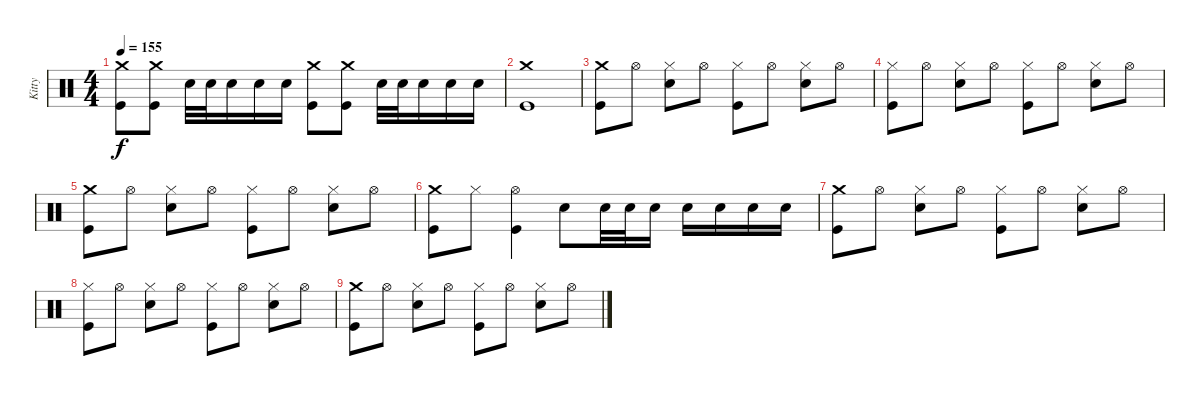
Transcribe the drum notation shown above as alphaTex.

\track ("Kitty" "Kitty") {instrument percussion}
\staff {score}
\articulation defaults
\ts (4 4)
\tempo 155
\clef neutral
\ks c
("Crash medium (hit)" "Kick (hit)").8{dy f} ("Crash medium (hit)" "Kick (hit)").8 "Electric Snare (hit)".32 "Electric Snare (hit)".32 "Electric Snare (hit)".16 "Electric Snare (hit)".16 "Electric Snare (hit)".16 ("Crash medium (hit)" "Kick (hit)").8 ("Crash medium (hit)" "Kick (hit)").8 "Electric Snare (hit)".32 "Electric Snare (hit)".32 "Electric Snare (hit)".16 "Electric Snare (hit)".16 "Electric Snare (hit)".16 |
("Crash medium (hit)" "Kick (hit)").1 |
("Crash medium (hit)" "Kick (hit)").8 "Hi-Hat (open)".8 ("Hi-Hat (closed)" "Electric Snare (hit)").8 "Hi-Hat (open)".8 ("Hi-Hat (closed)" "Kick (hit)").8 "Hi-Hat (open)".8 ("Hi-Hat (closed)" "Electric Snare (hit)").8 "Hi-Hat (open)".8 |
("Hi-Hat (closed)" "Kick (hit)").8 "Hi-Hat (open)".8 ("Hi-Hat (closed)" "Electric Snare (hit)").8 "Hi-Hat (open)".8 ("Hi-Hat (closed)" "Kick (hit)").8 "Hi-Hat (open)".8 ("Hi-Hat (closed)" "Electric Snare (hit)").8 "Hi-Hat (open)".8 |
("Crash medium (hit)" "Kick (hit)").8 "Hi-Hat (open)".8 ("Hi-Hat (closed)" "Electric Snare (hit)").8 "Hi-Hat (open)".8 ("Hi-Hat (closed)" "Kick (hit)").8 "Hi-Hat (open)".8 ("Hi-Hat (closed)" "Electric Snare (hit)").8 "Hi-Hat (open)".8 |
("Crash medium (hit)" "Kick (hit)").8 "Hi-Hat (closed)".8 ("Hi-Hat (open)" "Kick (hit)").4 "Electric Snare (hit)".8 "Electric Snare (hit)".32 "Electric Snare (hit)".32 "Electric Snare (hit)".16 "Electric Snare (hit)".16 "Electric Snare (hit)".16 "Electric Snare (hit)".16 "Electric Snare (hit)".16 |
("Crash medium (hit)" "Kick (hit)").8 "Hi-Hat (open)".8 ("Hi-Hat (closed)" "Electric Snare (hit)").8 "Hi-Hat (open)".8 ("Hi-Hat (closed)" "Kick (hit)").8 "Hi-Hat (open)".8 ("Hi-Hat (closed)" "Electric Snare (hit)").8 "Hi-Hat (open)".8 |
("Hi-Hat (closed)" "Kick (hit)").8 "Hi-Hat (open)".8 ("Hi-Hat (closed)" "Electric Snare (hit)").8 "Hi-Hat (open)".8 ("Hi-Hat (closed)" "Kick (hit)").8 "Hi-Hat (open)".8 ("Hi-Hat (closed)" "Electric Snare (hit)").8 "Hi-Hat (open)".8 |
("Crash medium (hit)" "Kick (hit)").8 "Hi-Hat (open)".8 ("Hi-Hat (closed)" "Electric Snare (hit)").8 "Hi-Hat (open)".8 ("Hi-Hat (closed)" "Kick (hit)").8 "Hi-Hat (open)".8 ("Hi-Hat (closed)" "Electric Snare (hit)").8 "Hi-Hat (open)".8
